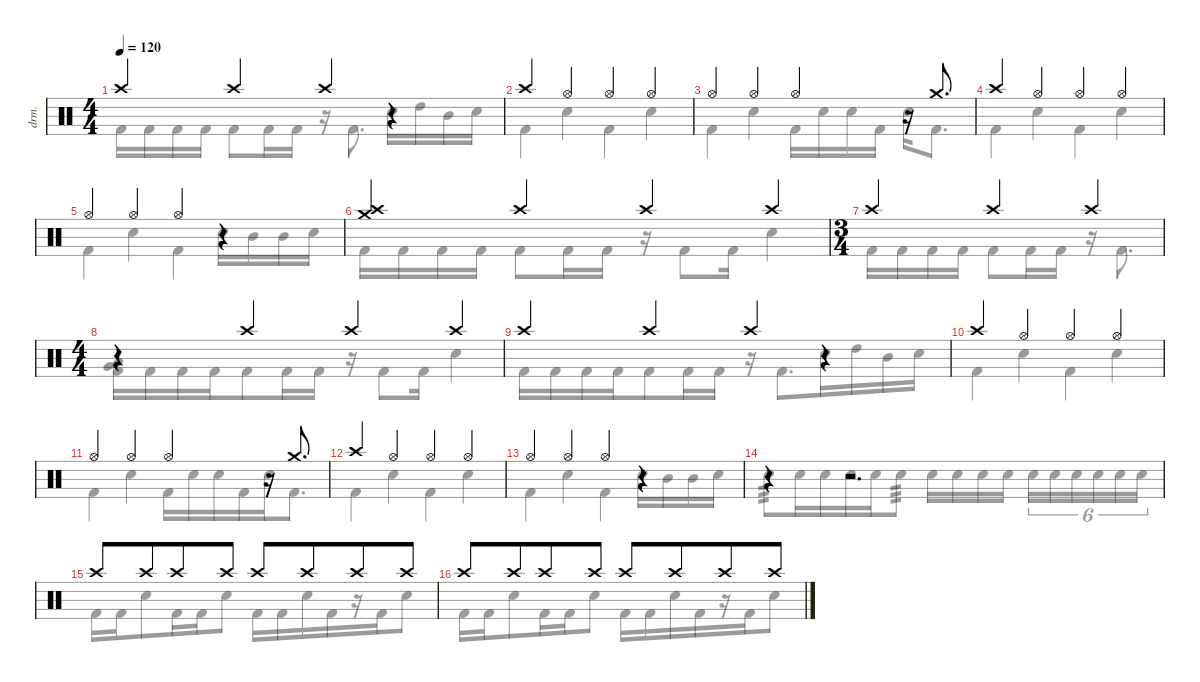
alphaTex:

\defaultSystemsLayout 4
\hideDynamics
\bracketExtendMode nobrackets
\otherSystemsTrackNameOrientation horizontal
\track ("B. Richardson Drums" "drm.") {instrument percussion}
\staff {score}
\articulation defaults
\voice
\ts (4 4)
\tempo 120
\clef neutral
\ks c "Crash high (hit)".4{dy mf beam Up} "Crash high (hit)".4{beam Up} "Crash high (hit)".4{beam Up}
r.4{beam Up} |
"Crash high (hit)".4{beam Up} "Hi-Hat (open)".4{beam Up} "Hi-Hat (open)".4{beam Up} "Hi-Hat (open)".4{beam Up} |
"Hi-Hat (open)".4{beam Up} "Hi-Hat (open)".4{beam Up} "Hi-Hat (open)".4{beam Up} r.16{beam Up} "Crash medium (hit)".8{d beam Up} |
"Crash high (hit)".4{beam Up} "Hi-Hat (open)".4{beam Up} "Hi-Hat (open)".4{beam Up} "Hi-Hat (open)".4{beam Up} |
"Hi-Hat (open)".4{beam Up} "Hi-Hat (open)".4{beam Up} "Hi-Hat (open)".4{beam Up} r.4{beam Up} |
("Crash high (hit)" "Crash medium (hit)").4{dy f beam Up} "Crash high (hit)".4{dy mf beam Up} "Crash high (hit)".4{beam Up} "Crash high (hit)".4{beam Up} |
\ts (3 4)
\beaming (8 2 2 2)
"Crash high (hit)".4{beam Up} "Crash high (hit)".4{beam Up} "Crash high (hit)".4{beam Up} |
\ts (4 4)
\beaming (8 4 4)
r.4{beam Up} "Crash high (hit)".4{beam Up} "Crash high (hit)".4{beam Up} "Crash high (hit)".4{beam Up} |
"Crash high (hit)".4{beam Up} "Crash high (hit)".4{beam Up} "Crash high (hit)".4{beam Up} r.4{beam Up} |
"Crash high (hit)".4{beam Up} "Hi-Hat (open)".4{beam Up} "Hi-Hat (open)".4{beam Up} "Hi-Hat (open)".4{beam Up} |
"Hi-Hat (open)".4{beam Up} "Hi-Hat (open)".4{beam Up} "Hi-Hat (open)".4{beam Up} r.16{beam Up} "Crash medium (hit)".8{d beam Up} |
"Crash high (hit)".4{beam Up} "Hi-Hat (open)".4{beam Up} "Hi-Hat (open)".4{beam Up} "Hi-Hat (open)".4{beam Up} |
"Hi-Hat (open)".4{beam Up} "Hi-Hat (open)".4{beam Up} "Hi-Hat (open)".4{beam Up} r.4{beam Up} |
r.4{beam Up} r.2{d beam Up} |
"Crash high (hit)".8{beam Up} "Crash high (hit)".8{beam Up} "Crash high (hit)".8{beam Up} "Crash high (hit)".8{beam Up} "Crash high (hit)".8{beam Up} "Crash high (hit)".8{beam Up} "Crash high (hit)".8{beam Up} "Crash high (hit)".8{beam Up} |
"Crash high (hit)".8{beam Up} "Crash high (hit)".8{beam Up} "Crash high (hit)".8{beam Up} "Crash high (hit)".8{beam Up} "Crash high (hit)".8{beam Up} "Crash high (hit)".8{beam Up} "Crash high (hit)".8{beam Up} "Crash high (hit)".8{beam Up}
\voice
\clef neutral
\ottava regular
\simile none
\ks c "Kick (hit) 2".16{dy fff beam Down} "Kick (hit) 2".16{beam Down} "Kick (hit) 2".16{beam Down} "Kick (hit) 2".16{beam Down} "Kick (hit) 2".8{beam Down} "Kick (hit) 2".16{beam Down} "Kick (hit) 2".16{beam Down}
r.16{beam Down} "Kick (hit) 2".8{d beam Down} "Snare (hit) 2".16{beam Down} "High Tom (hit)".16{beam Down} "Mid Tom (hit)".16{beam Down} "Snare (hit) 2".16{beam Down} |
"Kick (hit) 2".4{beam Down} "Snare (hit) 2".4{beam Down} "Kick (hit) 2".4{beam Down} "Snare (hit) 2".4{beam Down} |
"Kick (hit) 2".4{beam Down} "Snare (hit) 2".4{beam Down} "Kick (hit) 2".16{beam Down} "Snare (hit) 2".16{beam Down} "Snare (hit) 2".16{beam Down} "Kick (hit) 2".16{beam Down} "Snare (hit) 2".16{beam Down} "Kick (hit) 2".8{d beam Down} |
"Kick (hit) 2".4{beam Down} "Snare (hit) 2".4{beam Down} "Kick (hit) 2".4{beam Down} "Snare (hit) 2".4{beam Down} |
"Kick (hit) 2".4{beam Down} "Snare (hit) 2".4{beam Down} "Kick (hit) 2".4{beam Down} "Snare (hit) 2".16{beam Down} "Mid Tom (hit)".16{beam Down} "Mid Tom (hit)".16{beam Down} "Snare (hit) 2".16{beam Down} |
"Kick (hit) 2".16{beam Down} "Kick (hit) 2".16{beam Down} "Kick (hit) 2".16{beam Down} "Kick (hit) 2".16{beam Down} "Kick (hit) 2".8{beam Down} "Kick (hit) 2".16{beam Down} "Kick (hit) 2".16{beam Down} r.16{beam Down} "Kick (hit) 2".8{beam Down} "Kick (hit) 2".16{beam Down} "Snare (hit) 2".4{beam Down} |
"Kick (hit) 2".16{beam Down} "Kick (hit) 2".16{beam Down} "Kick (hit) 2".16{beam Down} "Kick (hit) 2".16{beam Down} "Kick (hit) 2".8{beam Down} "Kick (hit) 2".16{beam Down} "Kick (hit) 2".16{beam Down} r.16{beam Down} "Kick (hit) 2".8{d beam Down} |
("Low Tom (hit)" "Very Low Tom (hit)" "Kick (hit) 2").16{beam Down} "Kick (hit) 2".16{beam Down} "Kick (hit) 2".16{beam Down} "Kick (hit) 2".16{beam Down} "Kick (hit) 2".8{beam Down} "Kick (hit) 2".16{beam Down} "Kick (hit) 2".16{beam Down} r.16{beam Down} "Kick (hit) 2".8{beam Down} "Kick (hit) 2".16{beam Down} "Snare (hit) 2".4{beam Down} |
"Kick (hit) 2".16{beam Down} "Kick (hit) 2".16{beam Down} "Kick (hit) 2".16{beam Down} "Kick (hit) 2".16{beam Down} "Kick (hit) 2".8{beam Down} "Kick (hit) 2".16{beam Down} "Kick (hit) 2".16{beam Down} r.16{beam Down} "Kick (hit) 2".8{d beam Down} "Snare (hit) 2".16{beam Down} "High Tom (hit)".16{beam Down} "Mid Tom (hit)".16{beam Down} "Snare (hit) 2".16{beam Down} |
"Kick (hit) 2".4{beam Down} "Snare (hit) 2".4{beam Down} "Kick (hit) 2".4{beam Down} "Snare (hit) 2".4{beam Down} |
"Kick (hit) 2".4{beam Down} "Snare (hit) 2".4{beam Down} "Kick (hit) 2".16{beam Down} "Snare (hit) 2".16{beam Down} "Snare (hit) 2".16{beam Down} "Kick (hit) 2".16{beam Down} "Snare (hit) 2".16{beam Down} "Kick (hit) 2".8{d beam Down} |
"Kick (hit) 2".4{beam Down} "Snare (hit) 2".4{beam Down} "Kick (hit) 2".4{beam Down} "Snare (hit) 2".4{beam Down} |
"Kick (hit) 2".4{beam Down} "Snare (hit) 2".4{beam Down} "Kick (hit) 2".4{beam Down} "Snare (hit) 2".16{beam Down} "Mid Tom (hit)".16{beam Down} "Mid Tom (hit)".16{beam Down} "Snare (hit) 2".16{beam Down} |
"Snare (hit) 2".8{tp 3 dy f beam Down} "Snare (hit) 2".16{dy fff beam Down} "Snare (hit) 2".16{beam Down} "Snare (hit) 2".16{beam Down} "Snare (hit) 2".16{beam Down} "Snare (hit) 2".8{tp 3 dy f beam Down} "Snare (hit) 2".16{dy fff beam Down} "Snare (hit) 2".16{beam Down} "Snare (hit) 2".16{beam Down} "Snare (hit) 2".16{beam Down} "Snare (hit) 2".16{tu (6 4) beam Down} "Snare (hit) 2".16{tu (6 4) beam Down} "Snare (hit) 2".16{tu (6 4) beam Down} "Snare (hit) 2".16{tu (6 4) beam Down} "Snare (hit) 2".16{tu (6 4) beam Down} "Snare (hit) 2".16{tu (6 4) beam Down} |
"Kick (hit) 2".16{beam Down} "Kick (hit) 2".16{beam Down} "Snare (hit) 2".8{beam Down} "Kick (hit) 2".16{beam Down} "Kick (hit) 2".16{beam Down} "Snare (hit) 2".8{beam Down} "Kick (hit) 2".16{beam Down} "Kick (hit) 2".16{beam Down} "Snare (hit) 2".16{beam Down} "Kick (hit) 2".16{beam Down} r.16{beam Down} "Kick (hit) 2".16{beam Down} "Snare (hit) 2".8{beam Down} |
"Kick (hit) 2".16{beam Down} "Kick (hit) 2".16{beam Down} "Snare (hit) 2".8{beam Down} "Kick (hit) 2".16{beam Down} "Kick (hit) 2".16{beam Down} "Snare (hit) 2".8{beam Down} "Kick (hit) 2".16{beam Down} "Kick (hit) 2".16{beam Down} "Snare (hit) 2".16{beam Down} "Kick (hit) 2".16{beam Down} r.16{beam Down} "Kick (hit) 2".16{beam Down} "Snare (hit) 2".8{beam Down}
